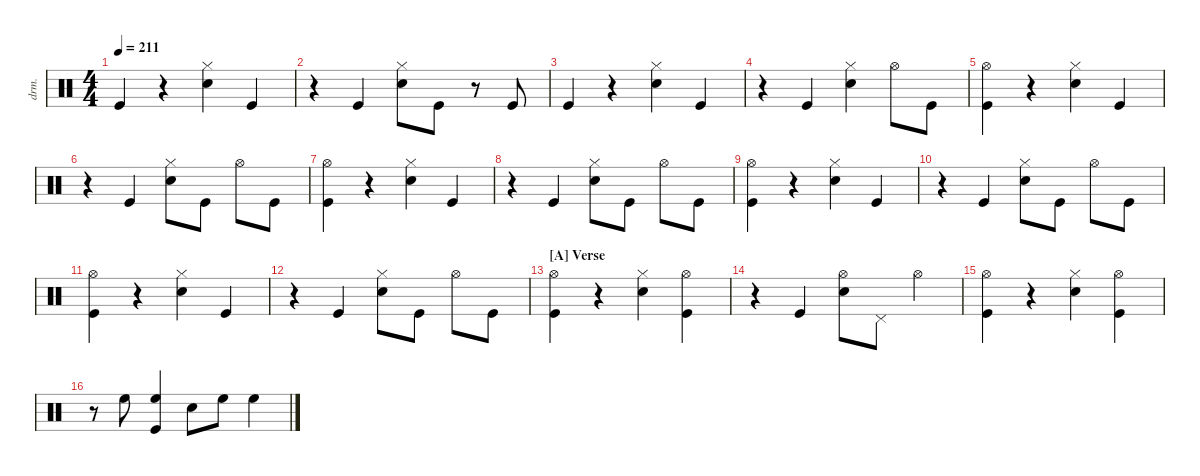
\defaultSystemsLayout 4
\hideDynamics
\bracketExtendMode nobrackets
\track ("Drums" "drm.") {instrument percussion}
\staff {score}
\articulation defaults
\ts (4 4)
\tempo 211
\clef neutral
\ks c "Kick (hit)".4{dy fff}
r.4 ("Snare (hit) 2" "Hi-Hat (closed)"{acc #}).4{dy ff} "Kick (hit)".4 |
r.4 "Kick (hit)".4 ("Snare (hit) 2" "Hi-Hat (closed)"{acc #}).8 "Kick (hit)".8 r.8 "Kick (hit)".8{dy mp} |
"Kick (hit)".4{dy fff} r.4 ("Snare (hit) 2" "Hi-Hat (closed)"{acc #}).4{dy ff} "Kick (hit)".4 |
r.4 "Kick (hit)".4 ("Snare (hit) 2" "Hi-Hat (closed)"{acc #}).4 "Hi-Hat (open)"{acc #}.8{dy f} "Kick (hit)".8{dy mp} |
("Kick (hit)" "Hi-Hat (open)"{acc #}).4{dy fff} r.4 ("Snare (hit) 2" "Hi-Hat (closed)"{acc #}).4{dy ff} "Kick (hit)".4 |
r.4 "Kick (hit)".4 ("Snare (hit) 2" "Hi-Hat (closed)"{acc #}).8 "Kick (hit)".8 "Hi-Hat (open)"{acc #}.8{dy f} "Kick (hit)".8{dy mp} |
("Kick (hit)" "Hi-Hat (open)"{acc #}).4{dy fff} r.4 ("Snare (hit) 2" "Hi-Hat (closed)"{acc #}).4{dy ff} "Kick (hit)".4 |
r.4 "Kick (hit)".4 ("Snare (hit) 2" "Hi-Hat (closed)"{acc #}).8 "Kick (hit)".8 "Hi-Hat (open)"{acc #}.8{dy f} "Kick (hit)".8{dy mp} |
("Kick (hit)" "Hi-Hat (open)"{acc #}).4{dy fff} r.4 ("Snare (hit) 2" "Hi-Hat (closed)"{acc #}).4{dy ff} "Kick (hit)".4 |
r.4 "Kick (hit)".4 ("Snare (hit) 2" "Hi-Hat (closed)"{acc #}).8 "Kick (hit)".8 "Hi-Hat (open)"{acc #}.8{dy f} "Kick (hit)".8{dy mp} |
("Kick (hit)" "Hi-Hat (open)"{acc #}).4{dy fff} r.4 ("Snare (hit) 2" "Hi-Hat (closed)"{acc #}).4{dy ff} "Kick (hit)".4 |
r.4 "Kick (hit)".4 ("Snare (hit) 2" "Hi-Hat (closed)"{acc #}).8 "Kick (hit)".8 "Hi-Hat (open)"{acc #}.8{dy f} "Kick (hit)".8{dy mp} |
\section ("A" "Verse")
("Kick (hit)" "Hi-Hat (open)"{acc #}).4{dy fff} r.4 ("Snare (hit) 2" "Hi-Hat (closed)"{acc #}).4{dy ff} ("Kick (hit)" "Hi-Hat (open)"{acc #}).4{dy f} |
r.4 "Kick (hit)".4{dy fff} ("Snare (hit) 2" "Hi-Hat (open)"{acc #}).8{dy ff} "Pedal Hi-Hat (hit)"{acc #}.8 "Hi-Hat (open)"{acc #}.4{dy fff} |
("Kick (hit)" "Hi-Hat (open)"{acc #}).4 r.4 ("Snare (hit) 2" "Hi-Hat (closed)"{acc #}).4{dy ff} ("Kick (hit)" "Hi-Hat (open)"{acc #}).4{dy f} |
r.8 "High Floor Tom (hit)".8{dy mp} ("Kick (hit)" "High Floor Tom (hit)").4{dy fff} "Snare (hit) 2".8{dy ff} "High Floor Tom (hit)".8{dy p} "High Floor Tom (hit)".4{dy fff}
